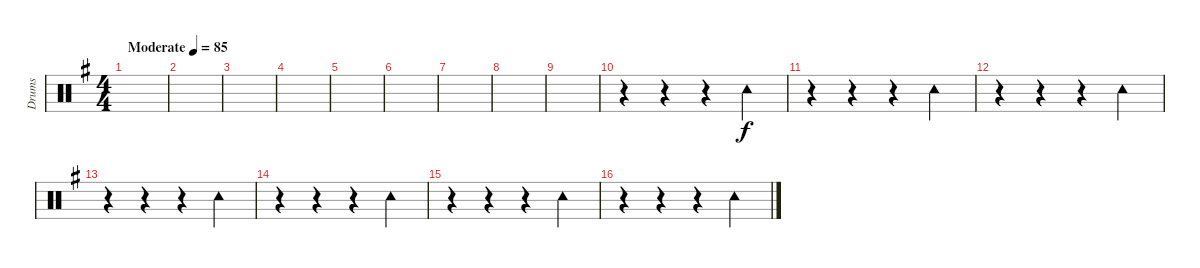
\track ("Drums" "Drums") {instrument percussion}
\staff {score}
\articulation defaults
\ts (4 4)
\tempo (85 "Moderate")
\clef neutral
\ks g
|
|
|
|
|
|
|
|
|
r.4 r.4 r.4 "Tambourine (hit)".4 |
r.4 r.4 r.4 "Tambourine (hit)".4 |
r.4 r.4 r.4 "Tambourine (hit)".4 |
r.4 r.4 r.4 "Tambourine (hit)".4 |
r.4 r.4 r.4 "Tambourine (hit)".4 |
r.4 r.4 r.4 "Tambourine (hit)".4 |
r.4 r.4 r.4 "Tambourine (hit)".4
